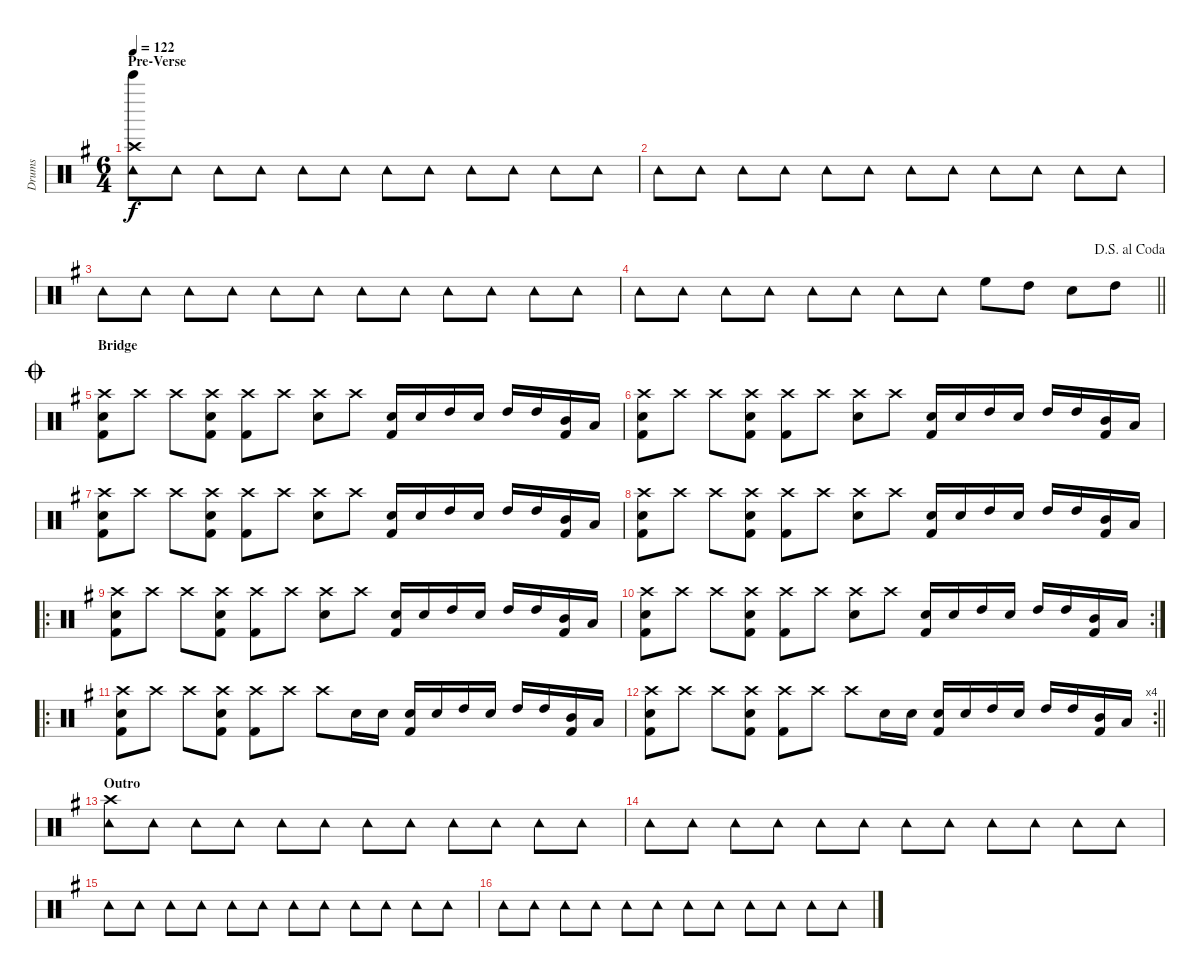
\track ("Drums" "Drums") {instrument percussion}
\staff {score}
\articulation defaults
\ts (6 4)
\section ("" "Pre-Verse")
\tempo 122
\clef neutral
\ks g
("Crash high (hit)" "Bell Tree (hit)" "Tambourine (hit)").8{dy f} "Tambourine (hit)".8 "Tambourine (hit)".8 "Tambourine (hit)".8 "Tambourine (hit)".8 "Tambourine (hit)".8 "Tambourine (hit)".8 "Tambourine (hit)".8 "Tambourine (hit)".8 "Tambourine (hit)".8 "Tambourine (hit)".8 "Tambourine (hit)".8 |
"Tambourine (hit)".8 "Tambourine (hit)".8 "Tambourine (hit)".8 "Tambourine (hit)".8 "Tambourine (hit)".8 "Tambourine (hit)".8 "Tambourine (hit)".8 "Tambourine (hit)".8 "Tambourine (hit)".8 "Tambourine (hit)".8 "Tambourine (hit)".8 "Tambourine (hit)".8 |
"Tambourine (hit)".8 "Tambourine (hit)".8 "Tambourine (hit)".8 "Tambourine (hit)".8 "Tambourine (hit)".8 "Tambourine (hit)".8 "Tambourine (hit)".8 "Tambourine (hit)".8 "Tambourine (hit)".8 "Tambourine (hit)".8 "Tambourine (hit)".8 "Tambourine (hit)".8 |
\jump dalsegnoalcoda
\barLineRight lightlight "Tambourine (hit)".8 "Tambourine (hit)".8 "Tambourine (hit)".8 "Tambourine (hit)".8 "Tambourine (hit)".8 "Tambourine (hit)".8 "Tambourine (hit)".8 "Tambourine (hit)".8 "High Floor Tom (hit)".8 "High Tom (hit)".8 "Snare (hit) 2".8 "High Tom (hit)".8
|
\section ("" "Bridge")
\jump coda
("Snare (hit) 2" "Crash high (hit)" "Kick (hit) 2").8 "Crash high (hit)".8 "Crash high (hit)".8 ("Snare (hit) 2" "Crash high (hit)" "Kick (hit) 2").8 ("Crash high (hit)" "Kick (hit) 2").8 "Crash high (hit)".8 ("Snare (hit) 2" "Crash high (hit)").8 "Crash high (hit)".8 ("Snare (hit) 2" "Kick (hit) 2").16 "Snare (hit) 2".16 "High Tom (hit)".16 "Snare (hit) 2".16 "High Tom (hit)".16 "High Tom (hit)".16 ("Mid Tom (hit)" "Kick (hit) 2").16 "Low Tom (hit)".16 |
("Snare (hit) 2" "Crash high (hit)" "Kick (hit) 2").8 "Crash high (hit)".8 "Crash high (hit)".8 ("Snare (hit) 2" "Crash high (hit)" "Kick (hit) 2").8 ("Crash high (hit)" "Kick (hit) 2").8 "Crash high (hit)".8 ("Snare (hit) 2" "Crash high (hit)").8 "Crash high (hit)".8 ("Snare (hit) 2" "Kick (hit) 2").16 "Snare (hit) 2".16 "High Tom (hit)".16 "Snare (hit) 2".16 "High Tom (hit)".16 "High Tom (hit)".16 ("Mid Tom (hit)" "Kick (hit) 2").16 "Low Tom (hit)".16 |
("Snare (hit) 2" "Crash high (hit)" "Kick (hit) 2").8 "Crash high (hit)".8 "Crash high (hit)".8 ("Snare (hit) 2" "Crash high (hit)" "Kick (hit) 2").8 ("Crash high (hit)" "Kick (hit) 2").8 "Crash high (hit)".8 ("Snare (hit) 2" "Crash high (hit)").8 "Crash high (hit)".8 ("Snare (hit) 2" "Kick (hit) 2").16 "Snare (hit) 2".16 "High Tom (hit)".16 "Snare (hit) 2".16 "High Tom (hit)".16 "High Tom (hit)".16 ("Mid Tom (hit)" "Kick (hit) 2").16 "Low Tom (hit)".16 |
("Snare (hit) 2" "Crash high (hit)" "Kick (hit) 2").8 "Crash high (hit)".8 "Crash high (hit)".8 ("Snare (hit) 2" "Crash high (hit)" "Kick (hit) 2").8 ("Crash high (hit)" "Kick (hit) 2").8 "Crash high (hit)".8 ("Snare (hit) 2" "Crash high (hit)").8 "Crash high (hit)".8 ("Snare (hit) 2" "Kick (hit) 2").16 "Snare (hit) 2".16 "High Tom (hit)".16 "Snare (hit) 2".16 "High Tom (hit)".16 "High Tom (hit)".16 ("Mid Tom (hit)" "Kick (hit) 2").16 "Low Tom (hit)".16 |
\ro
("Snare (hit) 2" "Crash high (hit)" "Kick (hit) 2").8 "Crash high (hit)".8 "Crash high (hit)".8 ("Snare (hit) 2" "Crash high (hit)" "Kick (hit) 2").8 ("Crash high (hit)" "Kick (hit) 2").8 "Crash high (hit)".8 ("Snare (hit) 2" "Crash high (hit)").8 "Crash high (hit)".8 ("Snare (hit) 2" "Kick (hit) 2").16 "Snare (hit) 2".16 "High Tom (hit)".16 "Snare (hit) 2".16 "High Tom (hit)".16 "High Tom (hit)".16 ("Mid Tom (hit)" "Kick (hit) 2").16 "Low Tom (hit)".16 |
\rc 2
("Snare (hit) 2" "Crash high (hit)" "Kick (hit) 2").8 "Crash high (hit)".8 "Crash high (hit)".8 ("Snare (hit) 2" "Crash high (hit)" "Kick (hit) 2").8 ("Crash high (hit)" "Kick (hit) 2").8 "Crash high (hit)".8 ("Snare (hit) 2" "Crash high (hit)").8 "Crash high (hit)".8 ("Snare (hit) 2" "Kick (hit) 2").16 "Snare (hit) 2".16 "High Tom (hit)".16 "Snare (hit) 2".16 "High Tom (hit)".16 "High Tom (hit)".16 ("Mid Tom (hit)" "Kick (hit) 2").16 "Low Tom (hit)".16 |
\ro
("Snare (hit) 2" "Crash high (hit)" "Kick (hit) 2").8 "Crash high (hit)".8 "Crash high (hit)".8 ("Snare (hit) 2" "Crash high (hit)" "Kick (hit) 2").8 ("Crash high (hit)" "Kick (hit) 2").8 "Crash high (hit)".8 "Crash high (hit)".8 "Snare (hit) 2".16 "Snare (hit) 2".16 ("Snare (hit) 2" "Kick (hit) 2").16 "Snare (hit) 2".16 "High Tom (hit)".16 "Snare (hit) 2".16 "High Tom (hit)".16 "High Tom (hit)".16 ("Mid Tom (hit)" "Kick (hit) 2").16 "Low Tom (hit)".16 |
\rc 4
\barLineRight lightlight
("Snare (hit) 2" "Crash high (hit)" "Kick (hit) 2").8 "Crash high (hit)".8 "Crash high (hit)".8 ("Snare (hit) 2" "Crash high (hit)" "Kick (hit) 2").8 ("Crash high (hit)" "Kick (hit) 2").8 "Crash high (hit)".8 "Crash high (hit)".8 "Snare (hit) 2".16 "Snare (hit) 2".16 ("Snare (hit) 2" "Kick (hit) 2").16 "Snare (hit) 2".16 "High Tom (hit)".16 "Snare (hit) 2".16 "High Tom (hit)".16 "High Tom (hit)".16 ("Mid Tom (hit)" "Kick (hit) 2").16 "Low Tom (hit)".16 |
\section ("" "Outro")
("Crash high (hit)" "Tambourine (hit)").8 "Tambourine (hit)".8 "Tambourine (hit)".8 "Tambourine (hit)".8 "Tambourine (hit)".8 "Tambourine (hit)".8 "Tambourine (hit)".8 "Tambourine (hit)".8 "Tambourine (hit)".8 "Tambourine (hit)".8 "Tambourine (hit)".8 "Tambourine (hit)".8 |
"Tambourine (hit)".8 "Tambourine (hit)".8 "Tambourine (hit)".8 "Tambourine (hit)".8 "Tambourine (hit)".8 "Tambourine (hit)".8 "Tambourine (hit)".8 "Tambourine (hit)".8 "Tambourine (hit)".8 "Tambourine (hit)".8 "Tambourine (hit)".8 "Tambourine (hit)".8 |
"Tambourine (hit)".8 "Tambourine (hit)".8 "Tambourine (hit)".8 "Tambourine (hit)".8 "Tambourine (hit)".8 "Tambourine (hit)".8 "Tambourine (hit)".8 "Tambourine (hit)".8 "Tambourine (hit)".8 "Tambourine (hit)".8 "Tambourine (hit)".8 "Tambourine (hit)".8 |
"Tambourine (hit)".8 "Tambourine (hit)".8 "Tambourine (hit)".8 "Tambourine (hit)".8 "Tambourine (hit)".8 "Tambourine (hit)".8 "Tambourine (hit)".8 "Tambourine (hit)".8 "Tambourine (hit)".8 "Tambourine (hit)".8 "Tambourine (hit)".8 "Tambourine (hit)".8
